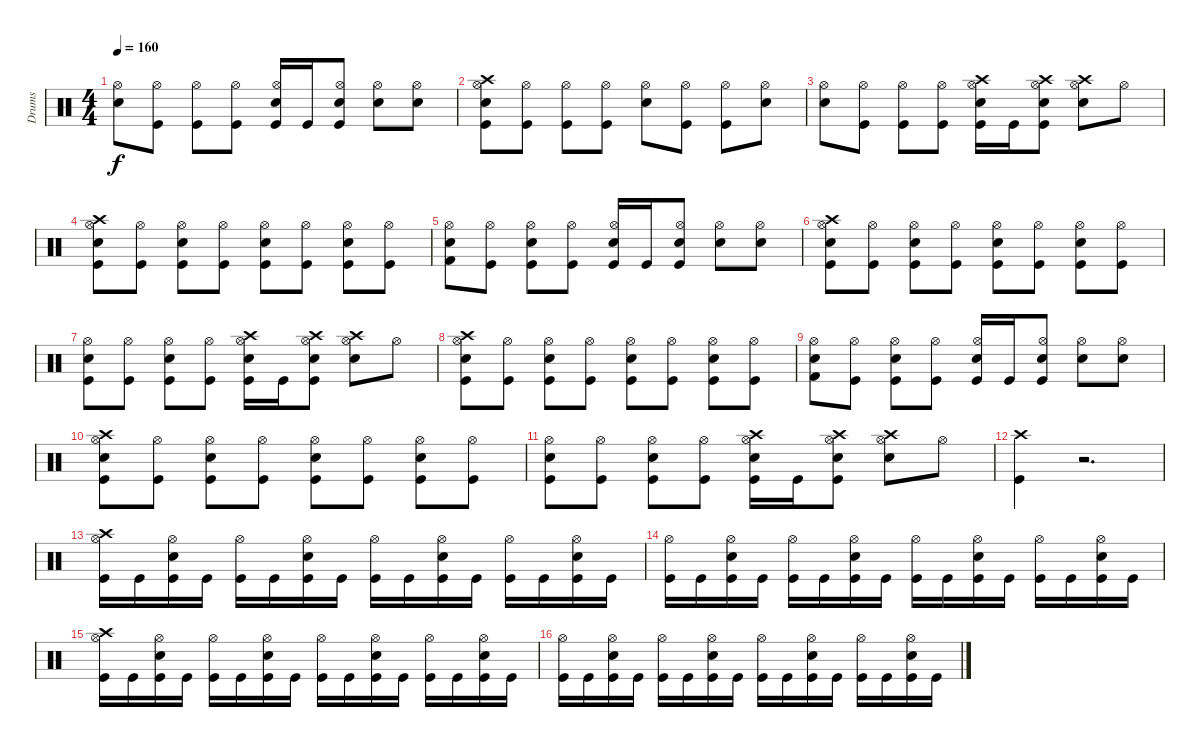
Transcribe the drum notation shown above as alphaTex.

\track ("Drums" "Drums") {instrument percussion}
\staff {score}
\articulation defaults
\ts (4 4)
\tempo 160
\clef neutral
\ks c
("Snare (hit) 2" "Hi-Hat (open)").8{dy f} ("Hi-Hat (open)" "Kick (hit)").8 ("Kick (hit)" "Hi-Hat (open)").8 ("Kick (hit)" "Hi-Hat (open)").8 ("Snare (hit) 2" "Hi-Hat (open)" "Kick (hit)").16 "Kick (hit)".16 ("Snare (hit) 2" "Hi-Hat (open)" "Kick (hit)").8 ("Hi-Hat (open)" "Snare (hit) 2").8 ("Snare (hit) 2" "Hi-Hat (open)").8 |
("Snare (hit) 2" "Crash high (hit)" "Hi-Hat (open)" "Kick (hit)").8 ("Hi-Hat (open)" "Kick (hit)").8 ("Kick (hit)" "Hi-Hat (open)").8 ("Kick (hit)" "Hi-Hat (open)").8 ("Snare (hit) 2" "Hi-Hat (open)").8 ("Hi-Hat (open)" "Kick (hit)").8 ("Kick (hit)" "Hi-Hat (open)").8 ("Snare (hit) 2" "Hi-Hat (open)").8 |
("Snare (hit) 2" "Hi-Hat (open)").8 ("Hi-Hat (open)" "Kick (hit)").8 ("Kick (hit)" "Hi-Hat (open)").8 ("Kick (hit)" "Hi-Hat (open)").8 ("Crash high (hit)" "Snare (hit) 2" "Hi-Hat (open)" "Kick (hit)").16 "Kick (hit)".16 ("Crash high (hit)" "Snare (hit) 2" "Hi-Hat (open)" "Kick (hit)").8 ("Crash high (hit)" "Hi-Hat (open)" "Snare (hit) 2").8 "Hi-Hat (open)".8 |
("Snare (hit) 2" "Crash high (hit)" "Hi-Hat (open)" "Kick (hit)").8 ("Hi-Hat (open)" "Kick (hit)").8 ("Snare (hit) 2" "Kick (hit)" "Hi-Hat (open)").8 ("Kick (hit)" "Hi-Hat (open)").8 ("Kick (hit)" "Snare (hit) 2" "Hi-Hat (open)").8 ("Hi-Hat (open)" "Kick (hit)").8 ("Snare (hit) 2" "Kick (hit)" "Hi-Hat (open)").8 ("Kick (hit)" "Hi-Hat (open)").8 |
("Kick (hit) 2" "Snare (hit) 2" "Hi-Hat (open)").8 ("Hi-Hat (open)" "Kick (hit)").8 ("Snare (hit) 2" "Kick (hit)" "Hi-Hat (open)").8 ("Kick (hit)" "Hi-Hat (open)").8 ("Snare (hit) 2" "Hi-Hat (open)" "Kick (hit)").16 "Kick (hit)".16 ("Snare (hit) 2" "Hi-Hat (open)" "Kick (hit)").8 ("Hi-Hat (open)" "Snare (hit) 2").8 ("Snare (hit) 2" "Hi-Hat (open)").8 |
("Snare (hit) 2" "Crash high (hit)" "Hi-Hat (open)" "Kick (hit)").8 ("Hi-Hat (open)" "Kick (hit)").8 ("Snare (hit) 2" "Kick (hit)" "Hi-Hat (open)").8 ("Kick (hit)" "Hi-Hat (open)").8 ("Kick (hit)" "Snare (hit) 2" "Hi-Hat (open)").8 ("Hi-Hat (open)" "Kick (hit)").8 ("Snare (hit) 2" "Kick (hit)" "Hi-Hat (open)").8 ("Kick (hit)" "Hi-Hat (open)").8 |
("Kick (hit)" "Snare (hit) 2" "Hi-Hat (open)").8 ("Hi-Hat (open)" "Kick (hit)").8 ("Snare (hit) 2" "Kick (hit)" "Hi-Hat (open)").8 ("Kick (hit)" "Hi-Hat (open)").8 ("Crash high (hit)" "Snare (hit) 2" "Hi-Hat (open)" "Kick (hit)").16 "Kick (hit)".16 ("Crash high (hit)" "Snare (hit) 2" "Hi-Hat (open)" "Kick (hit)").8 ("Crash high (hit)" "Hi-Hat (open)" "Snare (hit) 2").8 "Hi-Hat (open)".8 |
("Snare (hit) 2" "Crash high (hit)" "Hi-Hat (open)" "Kick (hit)").8 ("Hi-Hat (open)" "Kick (hit)").8 ("Snare (hit) 2" "Kick (hit)" "Hi-Hat (open)").8 ("Kick (hit)" "Hi-Hat (open)").8 ("Kick (hit)" "Snare (hit) 2" "Hi-Hat (open)").8 ("Hi-Hat (open)" "Kick (hit)").8 ("Snare (hit) 2" "Kick (hit)" "Hi-Hat (open)").8 ("Kick (hit)" "Hi-Hat (open)").8 |
("Kick (hit) 2" "Snare (hit) 2" "Hi-Hat (open)").8 ("Hi-Hat (open)" "Kick (hit)").8 ("Snare (hit) 2" "Kick (hit)" "Hi-Hat (open)").8 ("Kick (hit)" "Hi-Hat (open)").8 ("Snare (hit) 2" "Hi-Hat (open)" "Kick (hit)").16 "Kick (hit)".16 ("Snare (hit) 2" "Hi-Hat (open)" "Kick (hit)").8 ("Hi-Hat (open)" "Snare (hit) 2").8 ("Snare (hit) 2" "Hi-Hat (open)").8 |
("Snare (hit) 2" "Crash high (hit)" "Hi-Hat (open)" "Kick (hit)").8 ("Hi-Hat (open)" "Kick (hit)").8 ("Snare (hit) 2" "Kick (hit)" "Hi-Hat (open)").8 ("Kick (hit)" "Hi-Hat (open)").8 ("Kick (hit)" "Snare (hit) 2" "Hi-Hat (open)").8 ("Hi-Hat (open)" "Kick (hit)").8 ("Snare (hit) 2" "Kick (hit)" "Hi-Hat (open)").8 ("Kick (hit)" "Hi-Hat (open)").8 |
("Kick (hit)" "Snare (hit) 2" "Hi-Hat (open)").8 ("Hi-Hat (open)" "Kick (hit)").8 ("Snare (hit) 2" "Kick (hit)" "Hi-Hat (open)").8 ("Kick (hit)" "Hi-Hat (open)").8 ("Crash high (hit)" "Snare (hit) 2" "Hi-Hat (open)" "Kick (hit)").16 "Kick (hit)".16 ("Crash high (hit)" "Snare (hit) 2" "Hi-Hat (open)" "Kick (hit)").8 ("Crash high (hit)" "Hi-Hat (open)" "Snare (hit) 2").8 "Hi-Hat (open)".8 |
("Crash high (hit)" "Kick (hit)").4 r.2{d} |
("Crash high (hit)" "Hi-Hat (open)" "Kick (hit)").16 "Kick (hit)".16 ("Hi-Hat (open)" "Electric Snare (hit)" "Kick (hit)").16 "Kick (hit)".16 ("Hi-Hat (open)" "Kick (hit)").16 "Kick (hit)".16 ("Hi-Hat (open)" "Electric Snare (hit)" "Kick (hit)").16 "Kick (hit)".16 ("Hi-Hat (open)" "Kick (hit)").16 "Kick (hit)".16 ("Hi-Hat (open)" "Electric Snare (hit)" "Kick (hit)").16 "Kick (hit)".16 ("Hi-Hat (open)" "Kick (hit)").16 "Kick (hit)".16 ("Hi-Hat (open)" "Electric Snare (hit)" "Kick (hit)").16 "Kick (hit)".16 |
("Hi-Hat (open)" "Kick (hit)").16 "Kick (hit)".16 ("Hi-Hat (open)" "Electric Snare (hit)" "Kick (hit)").16 "Kick (hit)".16 ("Hi-Hat (open)" "Kick (hit)").16 "Kick (hit)".16 ("Hi-Hat (open)" "Electric Snare (hit)" "Kick (hit)").16 "Kick (hit)".16 ("Hi-Hat (open)" "Kick (hit)").16 "Kick (hit)".16 ("Hi-Hat (open)" "Electric Snare (hit)" "Kick (hit)").16 "Kick (hit)".16 ("Hi-Hat (open)" "Kick (hit)").16 "Kick (hit)".16 ("Hi-Hat (open)" "Electric Snare (hit)" "Kick (hit)").16 "Kick (hit)".16 |
("Crash high (hit)" "Hi-Hat (open)" "Kick (hit)").16 "Kick (hit)".16 ("Hi-Hat (open)" "Electric Snare (hit)" "Kick (hit)").16 "Kick (hit)".16 ("Hi-Hat (open)" "Kick (hit)").16 "Kick (hit)".16 ("Hi-Hat (open)" "Electric Snare (hit)" "Kick (hit)").16 "Kick (hit)".16 ("Hi-Hat (open)" "Kick (hit)").16 "Kick (hit)".16 ("Hi-Hat (open)" "Electric Snare (hit)" "Kick (hit)").16 "Kick (hit)".16 ("Hi-Hat (open)" "Kick (hit)").16 "Kick (hit)".16 ("Hi-Hat (open)" "Electric Snare (hit)" "Kick (hit)").16 "Kick (hit)".16 |
("Hi-Hat (open)" "Kick (hit)").16 "Kick (hit)".16 ("Hi-Hat (open)" "Electric Snare (hit)" "Kick (hit)").16 "Kick (hit)".16 ("Hi-Hat (open)" "Kick (hit)").16 "Kick (hit)".16 ("Hi-Hat (open)" "Electric Snare (hit)" "Kick (hit)").16 "Kick (hit)".16 ("Hi-Hat (open)" "Kick (hit)").16 "Kick (hit)".16 ("Hi-Hat (open)" "Electric Snare (hit)" "Kick (hit)").16 "Kick (hit)".16 ("Hi-Hat (open)" "Kick (hit)").16 "Kick (hit)".16 ("Hi-Hat (open)" "Electric Snare (hit)" "Kick (hit)").16 "Kick (hit)".16
